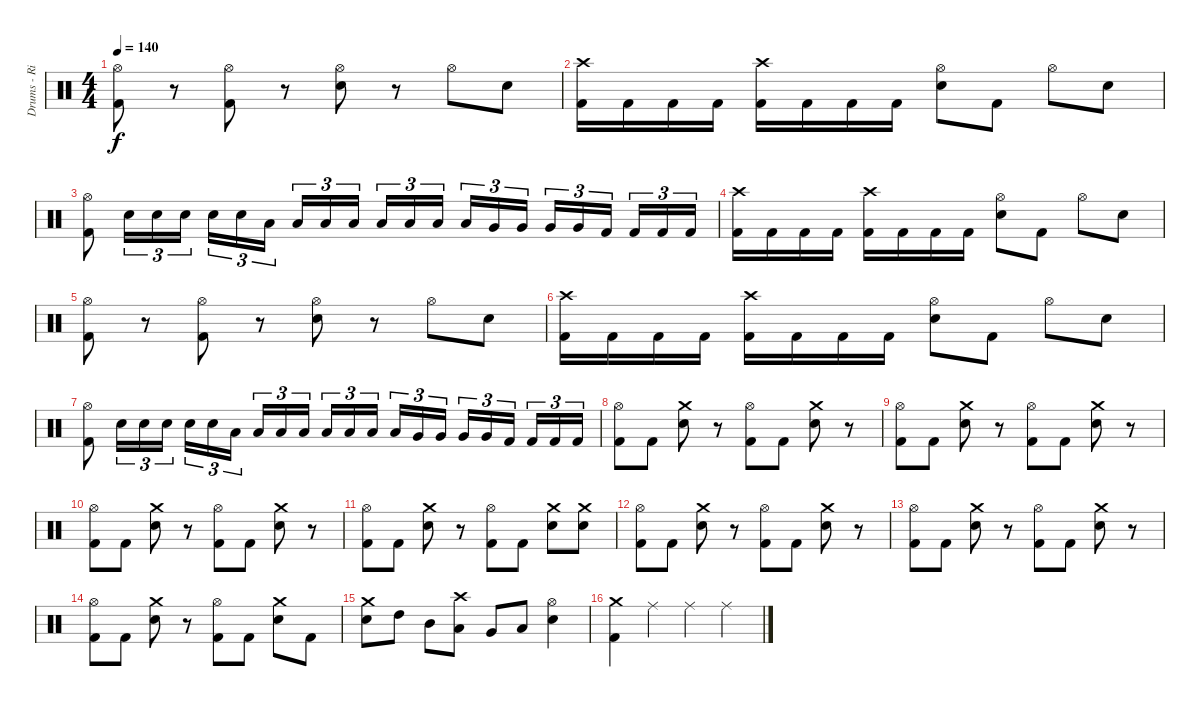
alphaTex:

\track ("Drums - Riley" "Drums - Ri") {instrument percussion}
\staff {score}
\articulation defaults
\ts (4 4)
\tempo 140
\clef neutral
\ks c
("Kick (hit) 2" "Hi-Hat (open)").8{dy f} r.8 ("Kick (hit) 2" "Hi-Hat (open)").8 r.8 ("Electric Snare (hit)" "Hi-Hat (open)").8 r.8 "Hi-Hat (open)".8 "Electric Snare (hit)".8 |
("Kick (hit) 2" "Crash high (hit)").16 "Kick (hit) 2".16 "Kick (hit) 2".16 "Kick (hit) 2".16 ("Kick (hit) 2" "Crash high (hit)").16 "Kick (hit) 2".16 "Kick (hit) 2".16 "Kick (hit) 2".16 ("Electric Snare (hit)" "Hi-Hat (open)").8 "Kick (hit) 2".8 "Hi-Hat (open)".8 "Electric Snare (hit)".8 |
("Kick (hit) 2" "Hi-Hat (open)").8 "Electric Snare (hit)".16{tu (3 2)} "Electric Snare (hit)".16{tu (3 2)} "Electric Snare (hit)".16{tu (3 2)} "Electric Snare (hit)".16{tu (3 2)} "Electric Snare (hit)".16{tu (3 2)} "Low Tom (hit)".16{tu (3 2) beam splitsecondary} "Low Tom (hit)".16{tu (3 2)} "Low Tom (hit)".16{tu (3 2)} "Low Tom (hit)".16{tu (3 2)} "Low Floor Tom (hit)".16{tu (3 2)} "Low Floor Tom (hit)".16{tu (3 2)} "Low Floor Tom (hit)".16{tu (3 2) beam splitsecondary} "Low Floor Tom (hit)".16{tu (3 2)} "Very Low Tom (hit)".16{tu (3 2)} "Very Low Tom (hit)".16{tu (3 2)} "Very Low Tom (hit)".16{tu (3 2)} "Very Low Tom (hit)".16{tu (3 2)} "Kick (hit) 2".16{tu (3 2) beam splitsecondary} "Kick (hit) 2".16{tu (3 2)} "Kick (hit) 2".16{tu (3 2)} "Kick (hit) 2".16{tu (3 2)} |
("Kick (hit) 2" "Crash high (hit)").16 "Kick (hit) 2".16 "Kick (hit) 2".16 "Kick (hit) 2".16 ("Kick (hit) 2" "Crash high (hit)").16 "Kick (hit) 2".16 "Kick (hit) 2".16 "Kick (hit) 2".16 ("Electric Snare (hit)" "Hi-Hat (open)").8 "Kick (hit) 2".8 "Hi-Hat (open)".8 "Electric Snare (hit)".8 |
("Kick (hit) 2" "Hi-Hat (open)").8 r.8 ("Kick (hit) 2" "Hi-Hat (open)").8 r.8 ("Electric Snare (hit)" "Hi-Hat (open)").8 r.8 "Hi-Hat (open)".8 "Electric Snare (hit)".8 |
("Kick (hit) 2" "Crash high (hit)").16 "Kick (hit) 2".16 "Kick (hit) 2".16 "Kick (hit) 2".16 ("Kick (hit) 2" "Crash high (hit)").16 "Kick (hit) 2".16 "Kick (hit) 2".16 "Kick (hit) 2".16 ("Electric Snare (hit)" "Hi-Hat (open)").8 "Kick (hit) 2".8 "Hi-Hat (open)".8 "Electric Snare (hit)".8 |
("Kick (hit) 2" "Hi-Hat (open)").8 "Electric Snare (hit)".16{tu (3 2)} "Electric Snare (hit)".16{tu (3 2)} "Electric Snare (hit)".16{tu (3 2)} "Electric Snare (hit)".16{tu (3 2)} "Electric Snare (hit)".16{tu (3 2)} "Low Tom (hit)".16{tu (3 2) beam splitsecondary} "Low Tom (hit)".16{tu (3 2)} "Low Tom (hit)".16{tu (3 2)} "Low Tom (hit)".16{tu (3 2)} "Low Floor Tom (hit)".16{tu (3 2)} "Low Floor Tom (hit)".16{tu (3 2)} "Low Floor Tom (hit)".16{tu (3 2) beam splitsecondary} "Low Floor Tom (hit)".16{tu (3 2)} "Very Low Tom (hit)".16{tu (3 2)} "Very Low Tom (hit)".16{tu (3 2)} "Very Low Tom (hit)".16{tu (3 2)} "Very Low Tom (hit)".16{tu (3 2)} "Kick (hit) 2".16{tu (3 2) beam splitsecondary} "Kick (hit) 2".16{tu (3 2)} "Kick (hit) 2".16{tu (3 2)} "Kick (hit) 2".16{tu (3 2)} |
("Kick (hit) 2" "Hi-Hat (open)").8 "Kick (hit) 2".8 ("Electric Snare (hit)" "Crash medium (hit)").8 r.8 ("Kick (hit) 2" "Hi-Hat (open)").8 "Kick (hit) 2".8 ("Electric Snare (hit)" "Crash medium (hit)").8 r.8 |
("Kick (hit) 2" "Hi-Hat (open)").8 "Kick (hit) 2".8 ("Electric Snare (hit)" "Crash medium (hit)").8 r.8 ("Kick (hit) 2" "Hi-Hat (open)").8 "Kick (hit) 2".8 ("Electric Snare (hit)" "Crash medium (hit)").8 r.8 |
("Kick (hit) 2" "Hi-Hat (open)").8 "Kick (hit) 2".8 ("Electric Snare (hit)" "Crash medium (hit)").8 r.8 ("Kick (hit) 2" "Hi-Hat (open)").8 "Kick (hit) 2".8 ("Electric Snare (hit)" "Crash medium (hit)").8 r.8 |
("Kick (hit) 2" "Hi-Hat (open)").8 "Kick (hit) 2".8 ("Electric Snare (hit)" "Crash medium (hit)").8 r.8 ("Kick (hit) 2" "Hi-Hat (open)").8 "Kick (hit) 2".8 ("Electric Snare (hit)" "Crash medium (hit)").8 ("Electric Snare (hit)" "Crash medium (hit)").8 |
("Kick (hit) 2" "Hi-Hat (open)").8 "Kick (hit) 2".8 ("Electric Snare (hit)" "Crash medium (hit)").8 r.8 ("Kick (hit) 2" "Hi-Hat (open)").8 "Kick (hit) 2".8 ("Electric Snare (hit)" "Crash medium (hit)").8 r.8 |
("Kick (hit) 2" "Hi-Hat (open)").8 "Kick (hit) 2".8 ("Electric Snare (hit)" "Crash medium (hit)").8 r.8 ("Kick (hit) 2" "Hi-Hat (open)").8 "Kick (hit) 2".8 ("Electric Snare (hit)" "Crash medium (hit)").8 r.8 |
("Kick (hit) 2" "Hi-Hat (open)").8 "Kick (hit) 2".8 ("Electric Snare (hit)" "Crash medium (hit)").8 r.8 ("Kick (hit) 2" "Hi-Hat (open)").8 "Kick (hit) 2".8 ("Electric Snare (hit)" "Crash medium (hit)").8 "Kick (hit) 2".8 |
("Electric Snare (hit)" "Crash medium (hit)").8 "High Tom (hit)".8 "Mid Tom (hit)".8 ("Low Tom (hit)" "Crash high (hit)").8 "Very Low Tom (hit)".8 "Low Floor Tom (hit)".8 ("Electric Snare (hit)" "Hi-Hat (open)").4 |
("Kick (hit) 2" "Crash medium (hit)").4 "Ride (middle)".4 "Ride (middle)".4 "Ride (middle)".4
